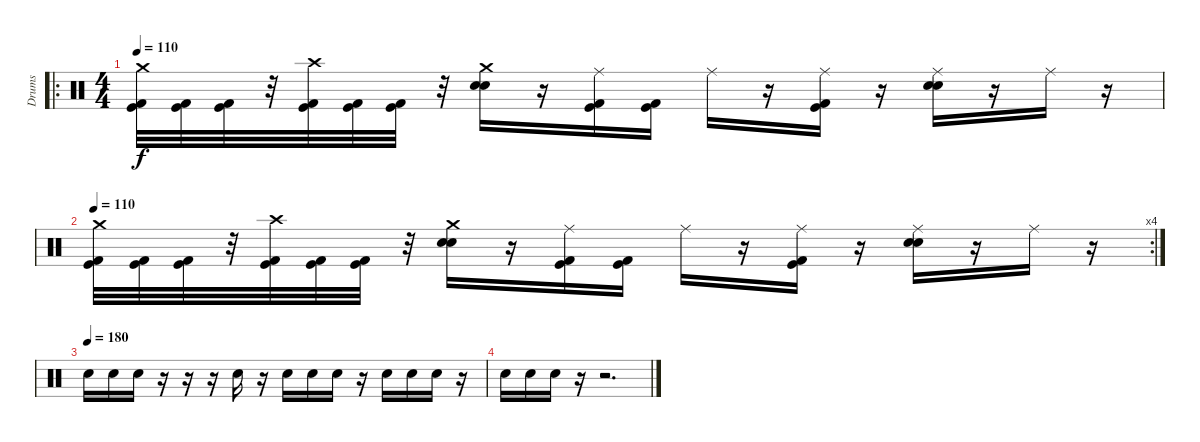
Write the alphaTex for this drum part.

\track ("Drums" "Drums") {instrument percussion}
\staff {score}
\articulation defaults
\ro
\ts (4 4)
\tempo 110
\clef neutral
\ks c
("Crash medium (hit)" "Kick (hit)" "Kick (hit) 2").32{dy f} ("Kick (hit)" "Kick (hit) 2").32 ("Kick (hit)" "Kick (hit) 2").32 r.32 ("Crash high (hit)" "Kick (hit)" "Kick (hit) 2").32 ("Kick (hit)" "Kick (hit) 2").32 ("Kick (hit)" "Kick (hit) 2").32 r.32 ("Crash medium (hit)" "Snare (hit) 2" "Snare (hit) 2").16 r.16 ("Ride (middle)" "Kick (hit)" "Kick (hit) 2").16 ("Kick (hit)" "Kick (hit) 2").16 "Ride (middle)".16 r.16 ("Ride (middle)" "Kick (hit)" "Kick (hit) 2").16 r.16 ("Ride (middle)" "Snare (hit) 2" "Snare (hit) 2").16 r.16 "Ride (middle)".16 r.16 |
\rc 4
\tempo 110
("Crash medium (hit)" "Kick (hit)" "Kick (hit) 2").32 ("Kick (hit)" "Kick (hit) 2").32 ("Kick (hit)" "Kick (hit) 2").32 r.32 ("Crash high (hit)" "Kick (hit)" "Kick (hit) 2").32 ("Kick (hit)" "Kick (hit) 2").32 ("Kick (hit)" "Kick (hit) 2").32 r.32 ("Crash medium (hit)" "Snare (hit) 2" "Snare (hit) 2").16 r.16 ("Ride (middle)" "Kick (hit)" "Kick (hit) 2").16 ("Kick (hit)" "Kick (hit) 2").16 "Ride (middle)".16 r.16 ("Ride (middle)" "Kick (hit)" "Kick (hit) 2").16 r.16 ("Ride (middle)" "Snare (hit) 2" "Snare (hit) 2").16 r.16 "Ride (middle)".16 r.16 |
\tempo (180)
"Snare (hit) 2".16 "Snare (hit) 2".16 "Snare (hit) 2".16 r.16 r.16 r.16 "Snare (hit) 2".16 r.16 "Snare (hit) 2".16 "Snare (hit) 2".16 "Snare (hit) 2".16 r.16 "Snare (hit) 2".16 "Snare (hit) 2".16 "Snare (hit) 2".16 r.16 |
"Snare (hit) 2".16 "Snare (hit) 2".16 "Snare (hit) 2".16 r.16 r.2{d}
